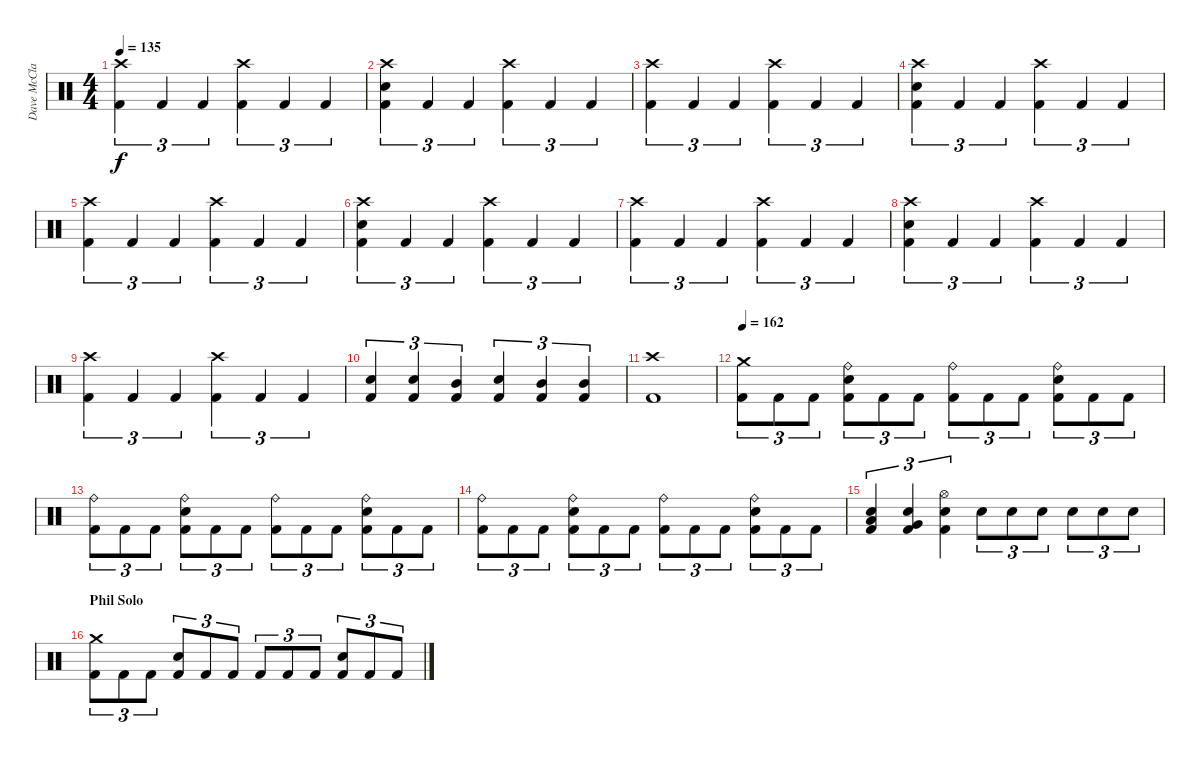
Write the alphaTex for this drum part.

\track ("Dave McClain" "Dave McCla") {instrument percussion}
\staff {score}
\articulation defaults
\ts (4 4)
\tempo 135
\clef neutral
\ks c
("Crash high (hit)" "Kick (hit) 2").4{tu (3 2) dy f} "Kick (hit) 2".4{tu (3 2)} "Kick (hit) 2".4{tu (3 2)} ("Crash high (hit)" "Kick (hit) 2").4{tu (3 2)} "Kick (hit) 2".4{tu (3 2)} "Kick (hit) 2".4{tu (3 2)} |
("Crash high (hit)" "Electric Snare (hit)" "Kick (hit) 2").4{tu (3 2)} "Kick (hit) 2".4{tu (3 2)} "Kick (hit) 2".4{tu (3 2)} ("Crash high (hit)" "Kick (hit) 2").4{tu (3 2)} "Kick (hit) 2".4{tu (3 2)} "Kick (hit) 2".4{tu (3 2)} |
("Crash high (hit)" "Kick (hit) 2").4{tu (3 2)} "Kick (hit) 2".4{tu (3 2)} "Kick (hit) 2".4{tu (3 2)} ("Crash high (hit)" "Kick (hit) 2").4{tu (3 2)} "Kick (hit) 2".4{tu (3 2)} "Kick (hit) 2".4{tu (3 2)} |
("Crash high (hit)" "Electric Snare (hit)" "Kick (hit) 2").4{tu (3 2)} "Kick (hit) 2".4{tu (3 2)} "Kick (hit) 2".4{tu (3 2)} ("Crash high (hit)" "Kick (hit) 2").4{tu (3 2)} "Kick (hit) 2".4{tu (3 2)} "Kick (hit) 2".4{tu (3 2)} |
("Crash high (hit)" "Kick (hit) 2").4{tu (3 2)} "Kick (hit) 2".4{tu (3 2)} "Kick (hit) 2".4{tu (3 2)} ("Crash high (hit)" "Kick (hit) 2").4{tu (3 2)} "Kick (hit) 2".4{tu (3 2)} "Kick (hit) 2".4{tu (3 2)} |
("Crash high (hit)" "Electric Snare (hit)" "Kick (hit) 2").4{tu (3 2)} "Kick (hit) 2".4{tu (3 2)} "Kick (hit) 2".4{tu (3 2)} ("Crash high (hit)" "Kick (hit) 2").4{tu (3 2)} "Kick (hit) 2".4{tu (3 2)} "Kick (hit) 2".4{tu (3 2)} |
("Crash high (hit)" "Kick (hit) 2").4{tu (3 2)} "Kick (hit) 2".4{tu (3 2)} "Kick (hit) 2".4{tu (3 2)} ("Crash high (hit)" "Kick (hit) 2").4{tu (3 2)} "Kick (hit) 2".4{tu (3 2)} "Kick (hit) 2".4{tu (3 2)} |
("Crash high (hit)" "Electric Snare (hit)" "Kick (hit) 2").4{tu (3 2)} "Kick (hit) 2".4{tu (3 2)} "Kick (hit) 2".4{tu (3 2)} ("Crash high (hit)" "Kick (hit) 2").4{tu (3 2)} "Kick (hit) 2".4{tu (3 2)} "Kick (hit) 2".4{tu (3 2)} |
("Crash high (hit)" "Kick (hit) 2").4{tu (3 2)} "Kick (hit) 2".4{tu (3 2)} "Kick (hit) 2".4{tu (3 2)} ("Crash high (hit)" "Kick (hit) 2").4{tu (3 2)} "Kick (hit) 2".4{tu (3 2)} "Kick (hit) 2".4{tu (3 2)} |
("Electric Snare (hit)" "Kick (hit) 2").4{tu (3 2)} ("Electric Snare (hit)" "Kick (hit) 2").4{tu (3 2)} ("Mid Tom (hit)" "Kick (hit) 2").4{tu (3 2)} ("Electric Snare (hit)" "Kick (hit) 2").4{tu (3 2)} ("Mid Tom (hit)" "Kick (hit) 2").4{tu (3 2)} ("Mid Tom (hit)" "Kick (hit) 2").4{tu (3 2)} |
("Crash high (hit)" "Kick (hit) 2").1 |
\tempo 162
("Crash medium (hit)" "Kick (hit) 2").8{tu (3 2)} "Kick (hit) 2".8{tu (3 2)} "Kick (hit) 2".8{tu (3 2)} ("Ride (bell)" "Electric Snare (hit)" "Kick (hit) 2").8{tu (3 2)} "Kick (hit) 2".8{tu (3 2)} "Kick (hit) 2".8{tu (3 2)} ("Ride (bell)" "Kick (hit) 2").8{tu (3 2)} "Kick (hit) 2".8{tu (3 2)} "Kick (hit) 2".8{tu (3 2)} ("Ride (bell)" "Electric Snare (hit)" "Kick (hit) 2").8{tu (3 2)} "Kick (hit) 2".8{tu (3 2)} "Kick (hit) 2".8{tu (3 2)} |
("Ride (bell)" "Kick (hit) 2").8{tu (3 2)} "Kick (hit) 2".8{tu (3 2)} "Kick (hit) 2".8{tu (3 2)} ("Ride (bell)" "Electric Snare (hit)" "Kick (hit) 2").8{tu (3 2)} "Kick (hit) 2".8{tu (3 2)} "Kick (hit) 2".8{tu (3 2)} ("Ride (bell)" "Kick (hit) 2").8{tu (3 2)} "Kick (hit) 2".8{tu (3 2)} "Kick (hit) 2".8{tu (3 2)} ("Ride (bell)" "Electric Snare (hit)" "Kick (hit) 2").8{tu (3 2)} "Kick (hit) 2".8{tu (3 2)} "Kick (hit) 2".8{tu (3 2)} |
("Ride (bell)" "Kick (hit) 2").8{tu (3 2)} "Kick (hit) 2".8{tu (3 2)} "Kick (hit) 2".8{tu (3 2)} ("Ride (bell)" "Electric Snare (hit)" "Kick (hit) 2").8{tu (3 2)} "Kick (hit) 2".8{tu (3 2)} "Kick (hit) 2".8{tu (3 2)} ("Ride (bell)" "Kick (hit) 2").8{tu (3 2)} "Kick (hit) 2".8{tu (3 2)} "Kick (hit) 2".8{tu (3 2)} ("Ride (bell)" "Electric Snare (hit)" "Kick (hit) 2").8{tu (3 2)} "Kick (hit) 2".8{tu (3 2)} "Kick (hit) 2".8{tu (3 2)} |
("Low Tom (hit)" "Electric Snare (hit)" "Kick (hit) 2").4{tu (3 2)} ("Very Low Tom (hit)" "Electric Snare (hit)" "Kick (hit) 2").4{tu (3 2)} ("Hi-Hat (open)" "Electric Snare (hit)" "Kick (hit) 2").4{tu (3 2)} "Electric Snare (hit)".8{tu (3 2)} "Electric Snare (hit)".8{tu (3 2)} "Electric Snare (hit)".8{tu (3 2)} "Electric Snare (hit)".8{tu (3 2)} "Electric Snare (hit)".8{tu (3 2)} "Electric Snare (hit)".8{tu (3 2)} |
\section ("" "Phil Solo")
("Crash medium (hit)" "Kick (hit) 2").8{tu (3 2)} "Kick (hit) 2".8{tu (3 2)} "Kick (hit) 2".8{tu (3 2)} ("Electric Snare (hit)" "Kick (hit) 2").8{tu (3 2)} "Kick (hit) 2".8{tu (3 2)} "Kick (hit) 2".8{tu (3 2)} "Kick (hit) 2".8{tu (3 2)} "Kick (hit) 2".8{tu (3 2)} "Kick (hit) 2".8{tu (3 2)} ("Electric Snare (hit)" "Kick (hit) 2").8{tu (3 2)} "Kick (hit) 2".8{tu (3 2)} "Kick (hit) 2".8{tu (3 2)}
